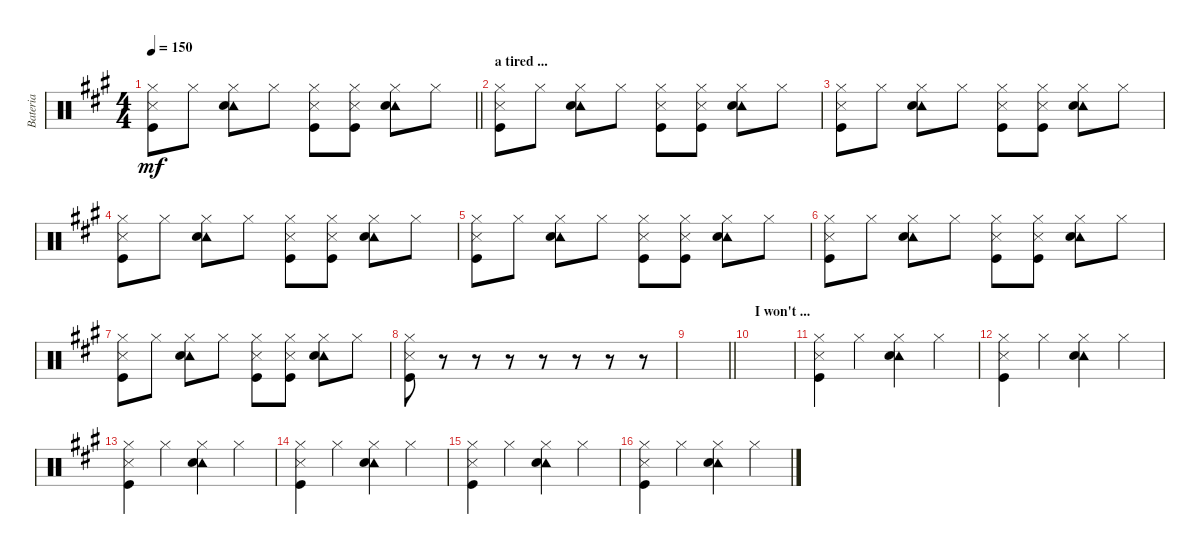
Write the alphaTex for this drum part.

\track ("Bateria" "Bateria") {instrument percussion}
\staff {score}
\articulation defaults
\ts (4 4)
\tempo 150
\clef neutral
\barLineRight lightlight
\ks a
("Hi-Hat (closed)" "Metronome (hit)" "Kick (hit)").8{dy mf} "Hi-Hat (closed)".8 ("Tambourine (hit)" "Hi-Hat (closed)" "Electric Snare (hit)").8 "Hi-Hat (closed)".8 ("Hi-Hat (closed)" "Metronome (hit)" "Kick (hit)").8 ("Hi-Hat (closed)" "Metronome (hit)" "Kick (hit)").8 ("Tambourine (hit)" "Hi-Hat (closed)" "Electric Snare (hit)").8 "Hi-Hat (closed)".8 |
\section ("" "a tired ...")
("Hi-Hat (closed)" "Metronome (hit)" "Kick (hit)").8 "Hi-Hat (closed)".8 ("Tambourine (hit)" "Hi-Hat (closed)" "Electric Snare (hit)").8 "Hi-Hat (closed)".8 ("Hi-Hat (closed)" "Metronome (hit)" "Kick (hit)").8 ("Hi-Hat (closed)" "Metronome (hit)" "Kick (hit)").8 ("Tambourine (hit)" "Hi-Hat (closed)" "Electric Snare (hit)").8 "Hi-Hat (closed)".8 |
("Hi-Hat (closed)" "Metronome (hit)" "Kick (hit)").8 "Hi-Hat (closed)".8 ("Tambourine (hit)" "Hi-Hat (closed)" "Electric Snare (hit)").8 "Hi-Hat (closed)".8 ("Hi-Hat (closed)" "Metronome (hit)" "Kick (hit)").8 ("Hi-Hat (closed)" "Metronome (hit)" "Kick (hit)").8 ("Tambourine (hit)" "Hi-Hat (closed)" "Electric Snare (hit)").8 "Hi-Hat (closed)".8 |
("Hi-Hat (closed)" "Metronome (hit)" "Kick (hit)").8 "Hi-Hat (closed)".8 ("Tambourine (hit)" "Hi-Hat (closed)" "Electric Snare (hit)").8 "Hi-Hat (closed)".8 ("Hi-Hat (closed)" "Metronome (hit)" "Kick (hit)").8 ("Hi-Hat (closed)" "Metronome (hit)" "Kick (hit)").8 ("Tambourine (hit)" "Hi-Hat (closed)" "Electric Snare (hit)").8 "Hi-Hat (closed)".8 |
("Hi-Hat (closed)" "Metronome (hit)" "Kick (hit)").8 "Hi-Hat (closed)".8 ("Tambourine (hit)" "Hi-Hat (closed)" "Electric Snare (hit)").8 "Hi-Hat (closed)".8 ("Hi-Hat (closed)" "Metronome (hit)" "Kick (hit)").8 ("Hi-Hat (closed)" "Metronome (hit)" "Kick (hit)").8 ("Tambourine (hit)" "Hi-Hat (closed)" "Electric Snare (hit)").8 "Hi-Hat (closed)".8 |
("Hi-Hat (closed)" "Metronome (hit)" "Kick (hit)").8 "Hi-Hat (closed)".8 ("Tambourine (hit)" "Hi-Hat (closed)" "Electric Snare (hit)").8 "Hi-Hat (closed)".8 ("Hi-Hat (closed)" "Metronome (hit)" "Kick (hit)").8 ("Hi-Hat (closed)" "Metronome (hit)" "Kick (hit)").8 ("Tambourine (hit)" "Hi-Hat (closed)" "Electric Snare (hit)").8 "Hi-Hat (closed)".8 |
("Hi-Hat (closed)" "Metronome (hit)" "Kick (hit)").8 "Hi-Hat (closed)".8 ("Tambourine (hit)" "Hi-Hat (closed)" "Electric Snare (hit)").8 "Hi-Hat (closed)".8 ("Hi-Hat (closed)" "Metronome (hit)" "Kick (hit)").8 ("Hi-Hat (closed)" "Metronome (hit)" "Kick (hit)").8 ("Tambourine (hit)" "Hi-Hat (closed)" "Electric Snare (hit)").8 "Hi-Hat (closed)".8 |
("Hi-Hat (closed)" "Metronome (hit)" "Kick (hit)").8 r.8 r.8 r.8 r.8 r.8 r.8 r.8 |
\barLineRight lightlight
|
\section ("" "I won't ...")
|
("Hi-Hat (closed)" "Metronome (hit)" "Kick (hit)").4 "Hi-Hat (closed)".4 ("Tambourine (hit)" "Hi-Hat (closed)" "Electric Snare (hit)").4 "Hi-Hat (closed)".4 |
("Hi-Hat (closed)" "Metronome (hit)" "Kick (hit)").4 "Hi-Hat (closed)".4 ("Tambourine (hit)" "Hi-Hat (closed)" "Electric Snare (hit)").4 "Hi-Hat (closed)".4 |
("Hi-Hat (closed)" "Metronome (hit)" "Kick (hit)").4 "Hi-Hat (closed)".4 ("Tambourine (hit)" "Hi-Hat (closed)" "Electric Snare (hit)").4 "Hi-Hat (closed)".4 |
("Hi-Hat (closed)" "Metronome (hit)" "Kick (hit)").4 "Hi-Hat (closed)".4 ("Tambourine (hit)" "Hi-Hat (closed)" "Electric Snare (hit)").4 "Hi-Hat (closed)".4 |
("Hi-Hat (closed)" "Metronome (hit)" "Kick (hit)").4 "Hi-Hat (closed)".4 ("Tambourine (hit)" "Hi-Hat (closed)" "Electric Snare (hit)").4 "Hi-Hat (closed)".4 |
("Hi-Hat (closed)" "Metronome (hit)" "Kick (hit)").4 "Hi-Hat (closed)".4 ("Tambourine (hit)" "Hi-Hat (closed)" "Electric Snare (hit)").4 "Hi-Hat (closed)".4
